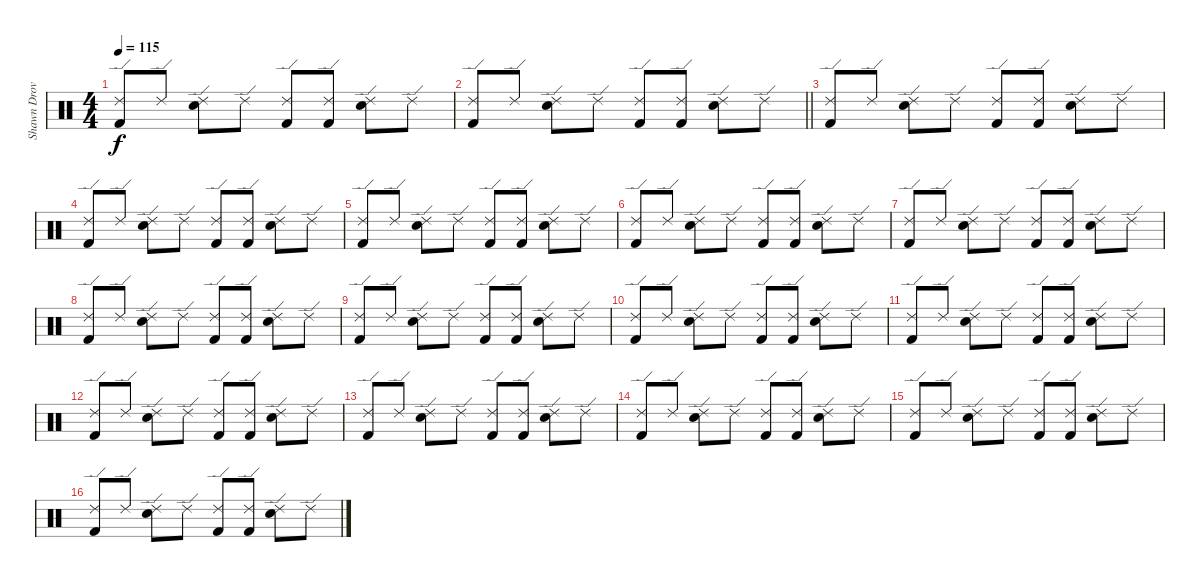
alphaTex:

\track ("Shawn Drover" "Shawn Drov") {instrument percussion}
\staff {score}
\articulation defaults
\ts (4 4)
\tempo 115
\clef neutral
\ks c
("Ride (edge) 2" "Kick (hit) 2").8{dy f} "Ride (edge) 2".8 ("Ride (edge) 2" "Snare (hit) 2").8 "Ride (edge) 2".8 ("Ride (edge) 2" "Kick (hit) 2").8 ("Ride (edge) 2" "Kick (hit) 2").8 ("Ride (edge) 2" "Snare (hit) 2").8 "Ride (edge) 2".8 |
\barLineRight lightlight
("Ride (edge) 2" "Kick (hit) 2").8 "Ride (edge) 2".8 ("Ride (edge) 2" "Snare (hit) 2").8 "Ride (edge) 2".8 ("Ride (edge) 2" "Kick (hit) 2").8 ("Ride (edge) 2" "Kick (hit) 2").8 ("Ride (edge) 2" "Snare (hit) 2").8 "Ride (edge) 2".8 |
("Ride (edge) 2" "Kick (hit) 2").8 "Ride (edge) 2".8 ("Ride (edge) 2" "Snare (hit) 2").8 "Ride (edge) 2".8 ("Ride (edge) 2" "Kick (hit) 2").8 ("Ride (edge) 2" "Kick (hit) 2").8 ("Ride (edge) 2" "Snare (hit) 2").8 "Ride (edge) 2".8 |
("Ride (edge) 2" "Kick (hit) 2").8 "Ride (edge) 2".8 ("Ride (edge) 2" "Snare (hit) 2").8 "Ride (edge) 2".8 ("Ride (edge) 2" "Kick (hit) 2").8 ("Ride (edge) 2" "Kick (hit) 2").8 ("Ride (edge) 2" "Snare (hit) 2").8 "Ride (edge) 2".8 |
("Ride (edge) 2" "Kick (hit) 2").8 "Ride (edge) 2".8 ("Ride (edge) 2" "Snare (hit) 2").8 "Ride (edge) 2".8 ("Ride (edge) 2" "Kick (hit) 2").8 ("Ride (edge) 2" "Kick (hit) 2").8 ("Ride (edge) 2" "Snare (hit) 2").8 "Ride (edge) 2".8 |
("Ride (edge) 2" "Kick (hit) 2").8 "Ride (edge) 2".8 ("Ride (edge) 2" "Snare (hit) 2").8 "Ride (edge) 2".8 ("Ride (edge) 2" "Kick (hit) 2").8 ("Ride (edge) 2" "Kick (hit) 2").8 ("Ride (edge) 2" "Snare (hit) 2").8 "Ride (edge) 2".8 |
("Ride (edge) 2" "Kick (hit) 2").8 "Ride (edge) 2".8 ("Ride (edge) 2" "Snare (hit) 2").8 "Ride (edge) 2".8 ("Ride (edge) 2" "Kick (hit) 2").8 ("Ride (edge) 2" "Kick (hit) 2").8 ("Ride (edge) 2" "Snare (hit) 2").8 "Ride (edge) 2".8 |
("Ride (edge) 2" "Kick (hit) 2").8 "Ride (edge) 2".8 ("Ride (edge) 2" "Snare (hit) 2").8 "Ride (edge) 2".8 ("Ride (edge) 2" "Kick (hit) 2").8 ("Ride (edge) 2" "Kick (hit) 2").8 ("Ride (edge) 2" "Snare (hit) 2").8 "Ride (edge) 2".8 |
("Ride (edge) 2" "Kick (hit) 2").8 "Ride (edge) 2".8 ("Ride (edge) 2" "Snare (hit) 2").8 "Ride (edge) 2".8 ("Ride (edge) 2" "Kick (hit) 2").8 ("Ride (edge) 2" "Kick (hit) 2").8 ("Ride (edge) 2" "Snare (hit) 2").8 "Ride (edge) 2".8 |
("Ride (edge) 2" "Kick (hit) 2").8 "Ride (edge) 2".8 ("Ride (edge) 2" "Snare (hit) 2").8 "Ride (edge) 2".8 ("Ride (edge) 2" "Kick (hit) 2").8 ("Ride (edge) 2" "Kick (hit) 2").8 ("Ride (edge) 2" "Snare (hit) 2").8 "Ride (edge) 2".8 |
("Ride (edge) 2" "Kick (hit) 2").8 "Ride (edge) 2".8 ("Ride (edge) 2" "Snare (hit) 2").8 "Ride (edge) 2".8 ("Ride (edge) 2" "Kick (hit) 2").8 ("Ride (edge) 2" "Kick (hit) 2").8 ("Ride (edge) 2" "Snare (hit) 2").8 "Ride (edge) 2".8 |
("Ride (edge) 2" "Kick (hit) 2").8 "Ride (edge) 2".8 ("Ride (edge) 2" "Snare (hit) 2").8 "Ride (edge) 2".8 ("Ride (edge) 2" "Kick (hit) 2").8 ("Ride (edge) 2" "Kick (hit) 2").8 ("Ride (edge) 2" "Snare (hit) 2").8 "Ride (edge) 2".8 |
("Ride (edge) 2" "Kick (hit) 2").8 "Ride (edge) 2".8 ("Ride (edge) 2" "Snare (hit) 2").8 "Ride (edge) 2".8 ("Ride (edge) 2" "Kick (hit) 2").8 ("Ride (edge) 2" "Kick (hit) 2").8 ("Ride (edge) 2" "Snare (hit) 2").8 "Ride (edge) 2".8 |
("Ride (edge) 2" "Kick (hit) 2").8 "Ride (edge) 2".8 ("Ride (edge) 2" "Snare (hit) 2").8 "Ride (edge) 2".8 ("Ride (edge) 2" "Kick (hit) 2").8 ("Ride (edge) 2" "Kick (hit) 2").8 ("Ride (edge) 2" "Snare (hit) 2").8 "Ride (edge) 2".8 |
("Ride (edge) 2" "Kick (hit) 2").8 "Ride (edge) 2".8 ("Ride (edge) 2" "Snare (hit) 2").8 "Ride (edge) 2".8 ("Ride (edge) 2" "Kick (hit) 2").8 ("Ride (edge) 2" "Kick (hit) 2").8 ("Ride (edge) 2" "Snare (hit) 2").8 "Ride (edge) 2".8 |
("Ride (edge) 2" "Kick (hit) 2").8 "Ride (edge) 2".8 ("Ride (edge) 2" "Snare (hit) 2").8 "Ride (edge) 2".8 ("Ride (edge) 2" "Kick (hit) 2").8 ("Ride (edge) 2" "Kick (hit) 2").8 ("Ride (edge) 2" "Snare (hit) 2").8 "Ride (edge) 2".8
